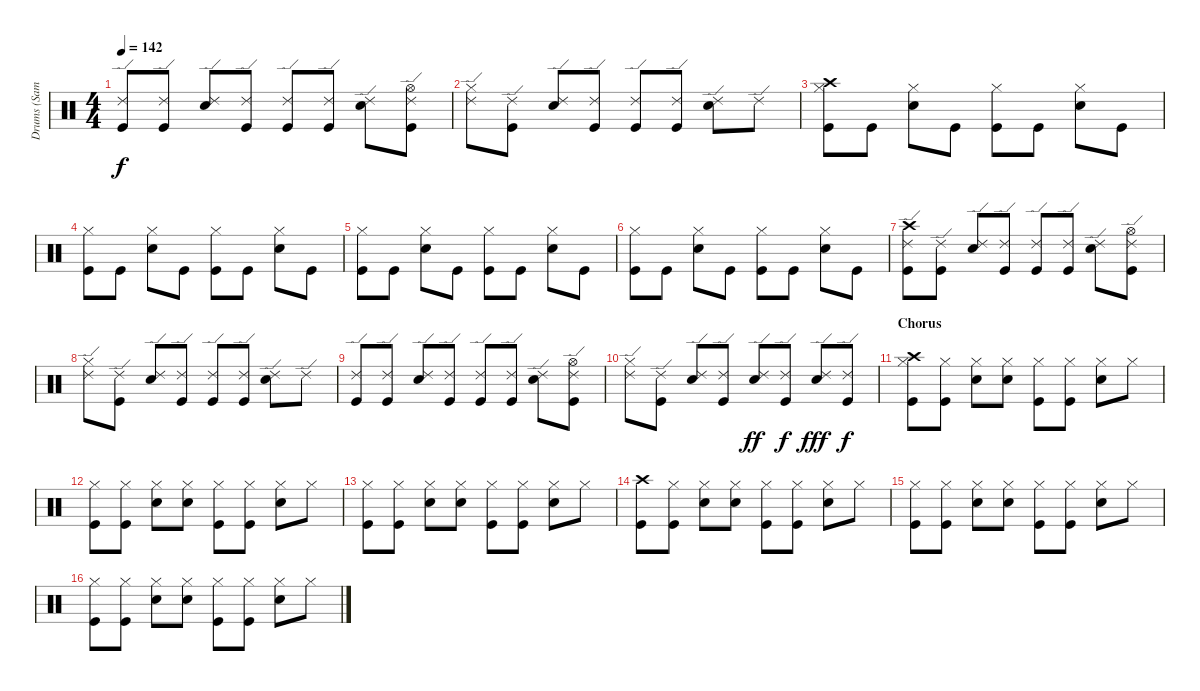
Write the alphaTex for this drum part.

\track ("Drums (Sam)" "Drums (Sam") {instrument percussion}
\staff {score}
\articulation defaults
\ts (4 4)
\tempo 142
\clef neutral
\ks c
("Ride (edge) 2" "Kick (hit)").8{dy f} ("Ride (edge) 2" "Kick (hit)").8 ("Ride (edge) 2" "Snare (hit) 2").8 ("Ride (edge) 2" "Kick (hit)").8 ("Ride (edge) 2" "Kick (hit)").8 ("Ride (edge) 2" "Kick (hit)").8 ("Ride (edge) 2" "Snare (hit) 2").8 ("Hi-Hat (open)" "Ride (edge) 2" "Kick (hit)").8 |
("Hi-Hat (closed)" "Ride (edge) 2").8 ("Ride (edge) 2" "Kick (hit)").8 ("Ride (edge) 2" "Snare (hit) 2").8 ("Ride (edge) 2" "Kick (hit)").8 ("Ride (edge) 2" "Kick (hit)").8 ("Ride (edge) 2" "Kick (hit)").8 ("Ride (edge) 2" "Snare (hit) 2").8 "Ride (edge) 2".8 |
("Crash high (hit)" "Hi-Hat (closed)" "Kick (hit)").8 "Kick (hit)".8 ("Hi-Hat (closed)" "Snare (hit) 2").8 "Kick (hit)".8 ("Hi-Hat (closed)" "Kick (hit)").8 "Kick (hit)".8 ("Hi-Hat (closed)" "Snare (hit) 2").8 "Kick (hit)".8 |
("Hi-Hat (closed)" "Kick (hit)").8 "Kick (hit)".8 ("Hi-Hat (closed)" "Snare (hit) 2").8 "Kick (hit)".8 ("Hi-Hat (closed)" "Kick (hit)").8 "Kick (hit)".8 ("Hi-Hat (closed)" "Snare (hit) 2").8 "Kick (hit)".8 |
("Hi-Hat (closed)" "Kick (hit)").8 "Kick (hit)".8 ("Hi-Hat (closed)" "Snare (hit) 2").8 "Kick (hit)".8 ("Hi-Hat (closed)" "Kick (hit)").8 "Kick (hit)".8 ("Hi-Hat (closed)" "Snare (hit) 2").8 "Kick (hit)".8 |
("Hi-Hat (closed)" "Kick (hit)").8 "Kick (hit)".8 ("Hi-Hat (closed)" "Snare (hit) 2").8 "Kick (hit)".8 ("Hi-Hat (closed)" "Kick (hit)").8 "Kick (hit)".8 ("Hi-Hat (closed)" "Snare (hit) 2").8 "Kick (hit)".8 |
("Crash high (hit)" "Ride (edge) 2" "Kick (hit)").8 ("Ride (edge) 2" "Kick (hit)").8 ("Ride (edge) 2" "Snare (hit) 2").8 ("Ride (edge) 2" "Kick (hit)").8 ("Ride (edge) 2" "Kick (hit)").8 ("Ride (edge) 2" "Kick (hit)").8 ("Ride (edge) 2" "Snare (hit) 2").8 ("Hi-Hat (open)" "Ride (edge) 2" "Kick (hit)").8 |
("Hi-Hat (closed)" "Ride (edge) 2").8 ("Ride (edge) 2" "Kick (hit)").8 ("Ride (edge) 2" "Snare (hit) 2").8 ("Ride (edge) 2" "Kick (hit)").8 ("Ride (edge) 2" "Kick (hit)").8 ("Ride (edge) 2" "Kick (hit)").8 ("Ride (edge) 2" "Snare (hit) 2").8 "Ride (edge) 2".8 |
("Ride (edge) 2" "Kick (hit)").8 ("Ride (edge) 2" "Kick (hit)").8 ("Ride (edge) 2" "Snare (hit) 2").8 ("Ride (edge) 2" "Kick (hit)").8 ("Ride (edge) 2" "Kick (hit)").8 ("Ride (edge) 2" "Kick (hit)").8 ("Ride (edge) 2" "Snare (hit) 2").8 ("Hi-Hat (open)" "Ride (edge) 2" "Kick (hit)").8 |
("Hi-Hat (closed)" "Ride (edge) 2").8 ("Ride (edge) 2" "Kick (hit)").8 ("Ride (edge) 2" "Snare (hit) 2").8 ("Ride (edge) 2" "Kick (hit)").8 ("Ride (edge) 2" "Snare (hit) 2").8{dy ff} ("Ride (edge) 2" "Kick (hit)").8{dy f} ("Ride (edge) 2" "Snare (hit) 2").8{dy fff} ("Ride (edge) 2" "Kick (hit)").8{dy f} |
\section ("" "Chorus")
("Crash high (hit)" "Hi-Hat (closed)" "Kick (hit)").8 ("Hi-Hat (closed)" "Kick (hit)").8 ("Hi-Hat (closed)" "Snare (hit) 2").8 ("Hi-Hat (closed)" "Snare (hit) 2").8 ("Hi-Hat (closed)" "Kick (hit)").8 ("Hi-Hat (closed)" "Kick (hit)").8 ("Hi-Hat (closed)" "Snare (hit) 2").8 "Hi-Hat (closed)".8 |
("Hi-Hat (closed)" "Kick (hit)").8 ("Hi-Hat (closed)" "Kick (hit)").8 ("Hi-Hat (closed)" "Snare (hit) 2").8 ("Hi-Hat (closed)" "Snare (hit) 2").8 ("Hi-Hat (closed)" "Kick (hit)").8 ("Hi-Hat (closed)" "Kick (hit)").8 ("Hi-Hat (closed)" "Snare (hit) 2").8 "Hi-Hat (closed)".8 |
("Hi-Hat (closed)" "Kick (hit)").8 ("Hi-Hat (closed)" "Kick (hit)").8 ("Hi-Hat (closed)" "Snare (hit) 2").8 ("Hi-Hat (closed)" "Snare (hit) 2").8 ("Hi-Hat (closed)" "Kick (hit)").8 ("Hi-Hat (closed)" "Kick (hit)").8 ("Hi-Hat (closed)" "Snare (hit) 2").8 "Hi-Hat (closed)".8 |
("Crash high (hit)" "Kick (hit)").8 ("Hi-Hat (closed)" "Kick (hit)").8 ("Hi-Hat (closed)" "Snare (hit) 2").8 ("Hi-Hat (closed)" "Snare (hit) 2").8 ("Hi-Hat (closed)" "Kick (hit)").8 ("Hi-Hat (closed)" "Kick (hit)").8 ("Hi-Hat (closed)" "Snare (hit) 2").8 "Hi-Hat (closed)".8 |
("Hi-Hat (closed)" "Kick (hit)").8 ("Hi-Hat (closed)" "Kick (hit)").8 ("Hi-Hat (closed)" "Snare (hit) 2").8 ("Hi-Hat (closed)" "Snare (hit) 2").8 ("Hi-Hat (closed)" "Kick (hit)").8 ("Hi-Hat (closed)" "Kick (hit)").8 ("Hi-Hat (closed)" "Snare (hit) 2").8 "Hi-Hat (closed)".8 |
("Hi-Hat (closed)" "Kick (hit)").8 ("Hi-Hat (closed)" "Kick (hit)").8 ("Hi-Hat (closed)" "Snare (hit) 2").8 ("Hi-Hat (closed)" "Snare (hit) 2").8 ("Hi-Hat (closed)" "Kick (hit)").8 ("Hi-Hat (closed)" "Kick (hit)").8 ("Hi-Hat (closed)" "Snare (hit) 2").8 "Hi-Hat (closed)".8
